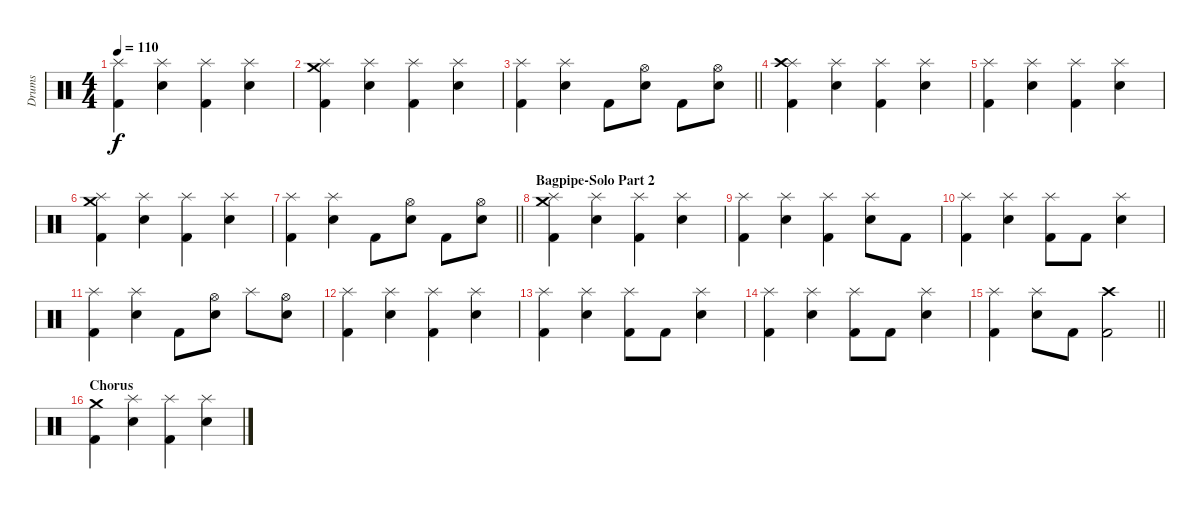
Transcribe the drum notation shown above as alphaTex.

\track ("Drums" "Drums") {instrument percussion}
\staff {score}
\articulation defaults
\ts (4 4)
\tempo 110
\clef neutral
\ks c
("Splash (hit)" "Kick (hit) 2").4{dy f} ("Splash (hit)" "Snare (hit) 2").4 ("Splash (hit)" "Kick (hit) 2").4 ("Splash (hit)" "Snare (hit) 2").4 |
("Splash (hit)" "Crash medium (hit)" "Kick (hit) 2").4 ("Splash (hit)" "Snare (hit) 2").4 ("Splash (hit)" "Kick (hit) 2").4 ("Splash (hit)" "Snare (hit) 2").4 |
\barLineRight lightlight
("Splash (hit)" "Kick (hit) 2").4 ("Splash (hit)" "Snare (hit) 2").4 "Kick (hit) 2".8 ("Hi-Hat (open)" "Snare (hit) 2").8 "Kick (hit) 2".8 ("Hi-Hat (open)" "Snare (hit) 2").8 |
("Splash (hit)" "Crash high (hit)" "Kick (hit) 2").4 ("Splash (hit)" "Snare (hit) 2").4 ("Splash (hit)" "Kick (hit) 2").4 ("Splash (hit)" "Snare (hit) 2").4 |
("Splash (hit)" "Kick (hit) 2").4 ("Splash (hit)" "Snare (hit) 2").4 ("Splash (hit)" "Kick (hit) 2").4 ("Splash (hit)" "Snare (hit) 2").4 |
("Splash (hit)" "Crash medium (hit)" "Kick (hit) 2").4 ("Splash (hit)" "Snare (hit) 2").4 ("Splash (hit)" "Kick (hit) 2").4 ("Splash (hit)" "Snare (hit) 2").4 |
\barLineRight lightlight
("Splash (hit)" "Kick (hit) 2").4 ("Splash (hit)" "Snare (hit) 2").4 "Kick (hit) 2".8 ("Hi-Hat (open)" "Snare (hit) 2").8 "Kick (hit) 2".8 ("Hi-Hat (open)" "Snare (hit) 2").8 |
\section ("" "Bagpipe-Solo Part 2")
("Splash (hit)" "Crash medium (hit)" "Kick (hit) 2").4 ("Splash (hit)" "Snare (hit) 2").4 ("Splash (hit)" "Kick (hit) 2").4 ("Splash (hit)" "Snare (hit) 2").4 |
("Splash (hit)" "Kick (hit) 2").4 ("Splash (hit)" "Snare (hit) 2").4 ("Splash (hit)" "Kick (hit) 2").4 ("Splash (hit)" "Snare (hit) 2").8 "Kick (hit) 2".8 |
("Splash (hit)" "Kick (hit) 2").4 ("Splash (hit)" "Snare (hit) 2").4 ("Splash (hit)" "Kick (hit) 2").8 "Kick (hit) 2".8 ("Splash (hit)" "Snare (hit) 2").4 |
("Splash (hit)" "Kick (hit) 2").4 ("Splash (hit)" "Snare (hit) 2").4 "Kick (hit) 2".8 ("Hi-Hat (open)" "Snare (hit) 2").8 "Splash (hit)".8 ("Hi-Hat (open)" "Snare (hit) 2").8 |
("Splash (hit)" "Kick (hit) 2").4 ("Splash (hit)" "Snare (hit) 2").4 ("Splash (hit)" "Kick (hit) 2").4 ("Splash (hit)" "Snare (hit) 2").4 |
("Splash (hit)" "Kick (hit) 2").4 ("Splash (hit)" "Snare (hit) 2").4 ("Splash (hit)" "Kick (hit) 2").8 "Kick (hit) 2".8 ("Splash (hit)" "Snare (hit) 2").4 |
("Splash (hit)" "Kick (hit) 2").4 ("Splash (hit)" "Snare (hit) 2").4 ("Splash (hit)" "Kick (hit) 2").8 "Kick (hit) 2".8 ("Splash (hit)" "Snare (hit) 2").4 |
\barLineRight lightlight
("Splash (hit)" "Kick (hit) 2").4 ("Splash (hit)" "Snare (hit) 2").8 "Kick (hit) 2".8 ("Crash high (hit)" "Kick (hit) 2").2 |
\section ("" "Chorus")
("Crash medium (hit)" "Kick (hit) 2").4 ("Splash (hit)" "Snare (hit) 2").4 ("Splash (hit)" "Kick (hit) 2").4 ("Splash (hit)" "Snare (hit) 2").4
